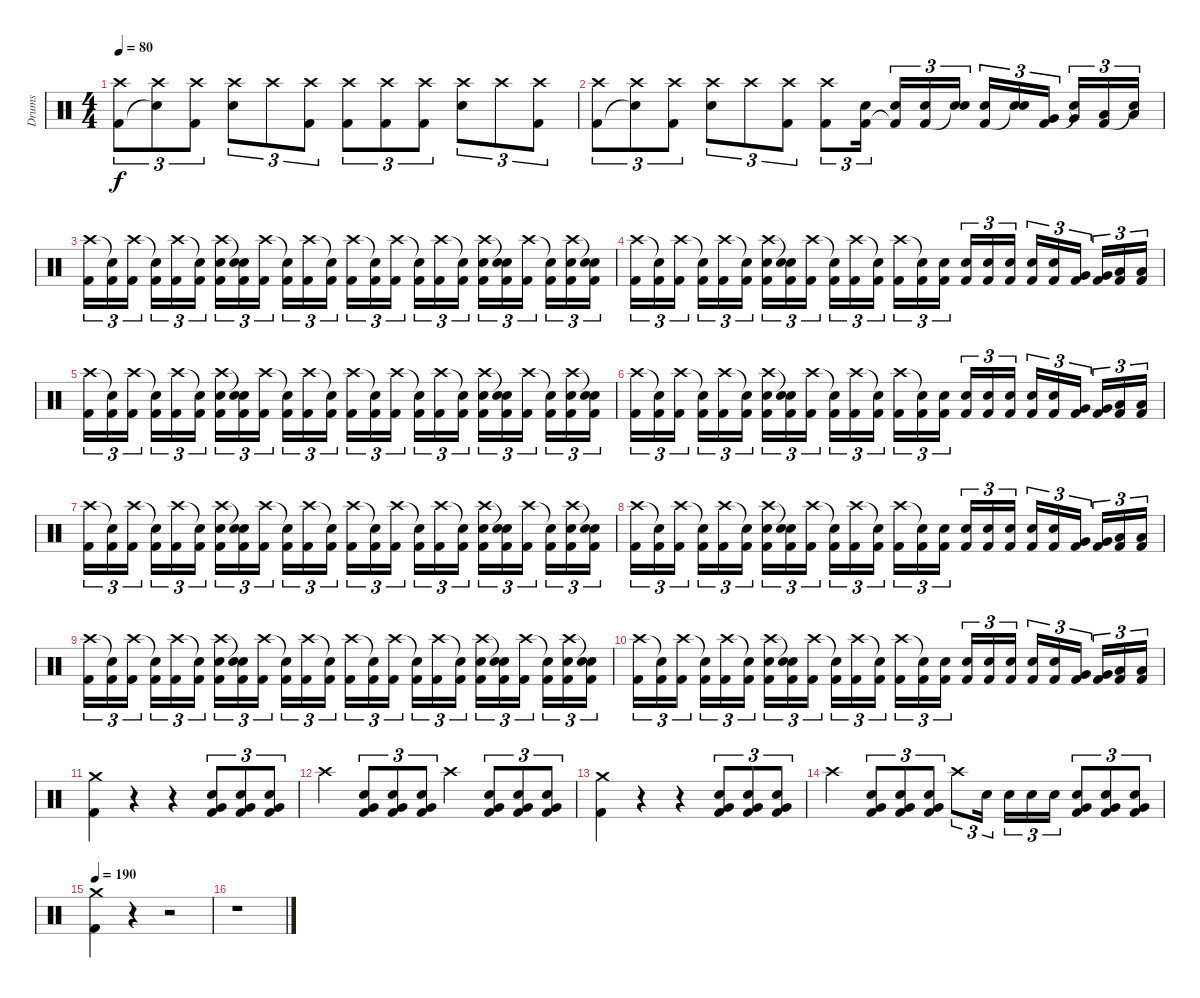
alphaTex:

\track ("Drums" "Drums") {instrument percussion}
\staff {score}
\articulation defaults
\ts (4 4)
\tempo 80
\clef neutral
\ks c
("Crash high (hit)" "Kick (hit) 2").8{tu (3 2) dy f} ("Crash high (hit)" "Snare (hit)"{t}).8{tu (3 2)} ("Crash high (hit)" "Kick (hit) 2").8{tu (3 2)} ("Crash high (hit)" "Snare (hit) 2").8{tu (3 2)} "Crash high (hit)".8{tu (3 2)} ("Crash high (hit)" "Kick (hit) 2").8{tu (3 2)} ("Crash high (hit)" "Kick (hit) 2").8{tu (3 2)} ("Crash high (hit)" "Kick (hit) 2").8{tu (3 2)} ("Crash high (hit)" "Kick (hit) 2").8{tu (3 2)} ("Crash high (hit)" "Snare (hit) 2").8{tu (3 2)} "Crash high (hit)".8{tu (3 2)} ("Crash high (hit)" "Kick (hit) 2").8{tu (3 2)} |
("Crash high (hit)" "Kick (hit) 2").8{tu (3 2)} ("Crash high (hit)" "Snare (hit)"{t}).8{tu (3 2)} ("Crash high (hit)" "Kick (hit) 2").8{tu (3 2)} ("Crash high (hit)" "Snare (hit) 2").8{tu (3 2)} "Crash high (hit)".8{tu (3 2)} ("Crash high (hit)" "Kick (hit) 2").8{tu (3 2)} ("Crash high (hit)" "Kick (hit) 2").8{tu (3 2)} ("Snare (hit) 2" "Kick (hit) 2").16{tu (3 2)} ("Snare (hit) 2" "Kick (hit) 2"{t}).16{tu (3 2)} ("Snare (hit) 2" "Kick (hit) 2").16{tu (3 2)} ("Snare (hit) 2" "Snare (hit)"{t}).16{tu (3 2)} ("Snare (hit) 2" "Kick (hit) 2").16{tu (3 2)} ("Snare (hit) 2" "Snare (hit)"{t}).16{tu (3 2)} ("Very Low Tom (hit)" "Kick (hit) 2").16{tu (3 2)} ("Very Low Tom (hit)" "Snare (hit)"{t}).16{tu (3 2)} ("Low Floor Tom (hit)" "Kick (hit) 2").16{tu (3 2)} ("Low Floor Tom (hit)" "Snare (hit)"{t}).16{tu (3 2)} |
("Crash high (hit)" "Kick (hit) 2").16{tu (3 2)} ("Snare (hit)"{t} "Kick (hit) 2").16{tu (3 2)} ("Crash high (hit)" "Kick (hit) 2").16{tu (3 2)} ("Snare (hit)"{t} "Kick (hit) 2").16{tu (3 2)} ("Crash high (hit)" "Kick (hit) 2").16{tu (3 2)} ("Snare (hit)"{t} "Kick (hit) 2").16{tu (3 2)} ("Crash high (hit)" "Snare (hit) 2" "Kick (hit) 2").16{tu (3 2)} ("Snare (hit)"{t} "Snare (hit)"{t} "Kick (hit) 2").16{tu (3 2)} ("Crash high (hit)" "Kick (hit) 2").16{tu (3 2)} ("Snare (hit)"{t} "Kick (hit) 2").16{tu (3 2)} ("Crash high (hit)" "Kick (hit) 2").16{tu (3 2)} ("Snare (hit)"{t} "Kick (hit) 2").16{tu (3 2)} ("Crash high (hit)" "Kick (hit) 2").16{tu (3 2)} ("Snare (hit)"{t} "Kick (hit) 2").16{tu (3 2)} ("Crash high (hit)" "Kick (hit) 2").16{tu (3 2)} ("Snare (hit)"{t} "Kick (hit) 2").16{tu (3 2)} ("Crash high (hit)" "Kick (hit) 2").16{tu (3 2)} ("Snare (hit)"{t} "Kick (hit) 2").16{tu (3 2)} ("Crash high (hit)" "Snare (hit) 2" "Kick (hit) 2").16{tu (3 2)} ("Snare (hit)"{t} "Snare (hit)"{t} "Kick (hit) 2").16{tu (3 2)} ("Crash high (hit)" "Kick (hit) 2").16{tu (3 2)} ("Snare (hit)"{t} "Kick (hit) 2").16{tu (3 2)} ("Crash high (hit)" "Snare (hit) 2" "Kick (hit) 2").16{tu (3 2)} ("Snare (hit)"{t} "Snare (hit)"{t} "Kick (hit) 2").16{tu (3 2)} |
("Crash high (hit)" "Kick (hit) 2").16{tu (3 2)} ("Snare (hit)"{t} "Kick (hit) 2").16{tu (3 2)} ("Crash high (hit)" "Kick (hit) 2").16{tu (3 2)} ("Snare (hit)"{t} "Kick (hit) 2").16{tu (3 2)} ("Crash high (hit)" "Kick (hit) 2").16{tu (3 2)} ("Snare (hit)"{t} "Kick (hit) 2").16{tu (3 2)} ("Crash high (hit)" "Snare (hit) 2" "Kick (hit) 2").16{tu (3 2)} ("Snare (hit)"{t} "Snare (hit)"{t} "Kick (hit) 2").16{tu (3 2)} ("Crash high (hit)" "Kick (hit) 2").16{tu (3 2)} ("Snare (hit)"{t} "Kick (hit) 2").16{tu (3 2)} ("Crash high (hit)" "Kick (hit) 2").16{tu (3 2)} ("Snare (hit)"{t} "Kick (hit) 2").16{tu (3 2)} ("Crash high (hit)" "Kick (hit) 2").16{tu (3 2)} ("Snare (hit)"{t} "Kick (hit) 2").16{tu (3 2)} ("Snare (hit) 2" "Kick (hit) 2").16{tu (3 2)} ("Snare (hit) 2" "Kick (hit) 2").16{tu (3 2)} ("Snare (hit) 2" "Kick (hit) 2").16{tu (3 2)} ("Snare (hit) 2" "Kick (hit) 2").16{tu (3 2)} ("Snare (hit) 2" "Kick (hit) 2").16{tu (3 2)} ("Snare (hit) 2" "Kick (hit) 2").16{tu (3 2)} ("Very Low Tom (hit)" "Kick (hit) 2").16{tu (3 2)} ("Very Low Tom (hit)" "Kick (hit) 2").16{tu (3 2)} ("Low Floor Tom (hit)" "Kick (hit) 2").16{tu (3 2)} ("Low Floor Tom (hit)" "Kick (hit) 2").16{tu (3 2)} |
("Crash high (hit)" "Kick (hit) 2").16{tu (3 2)} ("Snare (hit)"{t} "Kick (hit) 2").16{tu (3 2)} ("Crash high (hit)" "Kick (hit) 2").16{tu (3 2)} ("Snare (hit)"{t} "Kick (hit) 2").16{tu (3 2)} ("Crash high (hit)" "Kick (hit) 2").16{tu (3 2)} ("Snare (hit)"{t} "Kick (hit) 2").16{tu (3 2)} ("Crash high (hit)" "Snare (hit) 2" "Kick (hit) 2").16{tu (3 2)} ("Snare (hit)"{t} "Snare (hit)"{t} "Kick (hit) 2").16{tu (3 2)} ("Crash high (hit)" "Kick (hit) 2").16{tu (3 2)} ("Snare (hit)"{t} "Kick (hit) 2").16{tu (3 2)} ("Crash high (hit)" "Kick (hit) 2").16{tu (3 2)} ("Snare (hit)"{t} "Kick (hit) 2").16{tu (3 2)} ("Crash high (hit)" "Kick (hit) 2").16{tu (3 2)} ("Snare (hit)"{t} "Kick (hit) 2").16{tu (3 2)} ("Crash high (hit)" "Kick (hit) 2").16{tu (3 2)} ("Snare (hit)"{t} "Kick (hit) 2").16{tu (3 2)} ("Crash high (hit)" "Kick (hit) 2").16{tu (3 2)} ("Snare (hit)"{t} "Kick (hit) 2").16{tu (3 2)} ("Crash high (hit)" "Snare (hit) 2" "Kick (hit) 2").16{tu (3 2)} ("Snare (hit)"{t} "Snare (hit)"{t} "Kick (hit) 2").16{tu (3 2)} ("Crash high (hit)" "Kick (hit) 2").16{tu (3 2)} ("Snare (hit)"{t} "Kick (hit) 2").16{tu (3 2)} ("Crash high (hit)" "Snare (hit) 2" "Kick (hit) 2").16{tu (3 2)} ("Snare (hit)"{t} "Snare (hit)"{t} "Kick (hit) 2").16{tu (3 2)} |
("Crash high (hit)" "Kick (hit) 2").16{tu (3 2)} ("Snare (hit)"{t} "Kick (hit) 2").16{tu (3 2)} ("Crash high (hit)" "Kick (hit) 2").16{tu (3 2)} ("Snare (hit)"{t} "Kick (hit) 2").16{tu (3 2)} ("Crash high (hit)" "Kick (hit) 2").16{tu (3 2)} ("Snare (hit)"{t} "Kick (hit) 2").16{tu (3 2)} ("Crash high (hit)" "Snare (hit) 2" "Kick (hit) 2").16{tu (3 2)} ("Snare (hit)"{t} "Snare (hit)"{t} "Kick (hit) 2").16{tu (3 2)} ("Crash high (hit)" "Kick (hit) 2").16{tu (3 2)} ("Snare (hit)"{t} "Kick (hit) 2").16{tu (3 2)} ("Crash high (hit)" "Kick (hit) 2").16{tu (3 2)} ("Snare (hit)"{t} "Kick (hit) 2").16{tu (3 2)} ("Crash high (hit)" "Kick (hit) 2").16{tu (3 2)} ("Snare (hit)"{t} "Kick (hit) 2").16{tu (3 2)} ("Snare (hit) 2" "Kick (hit) 2").16{tu (3 2)} ("Snare (hit) 2" "Kick (hit) 2").16{tu (3 2)} ("Snare (hit) 2" "Kick (hit) 2").16{tu (3 2)} ("Snare (hit) 2" "Kick (hit) 2").16{tu (3 2)} ("Snare (hit) 2" "Kick (hit) 2").16{tu (3 2)} ("Snare (hit) 2" "Kick (hit) 2").16{tu (3 2)} ("Very Low Tom (hit)" "Kick (hit) 2").16{tu (3 2)} ("Very Low Tom (hit)" "Kick (hit) 2").16{tu (3 2)} ("Low Floor Tom (hit)" "Kick (hit) 2").16{tu (3 2)} ("Low Floor Tom (hit)" "Kick (hit) 2").16{tu (3 2)} |
("Crash high (hit)" "Kick (hit) 2").16{tu (3 2)} ("Snare (hit)"{t} "Kick (hit) 2").16{tu (3 2)} ("Crash high (hit)" "Kick (hit) 2").16{tu (3 2)} ("Snare (hit)"{t} "Kick (hit) 2").16{tu (3 2)} ("Crash high (hit)" "Kick (hit) 2").16{tu (3 2)} ("Snare (hit)"{t} "Kick (hit) 2").16{tu (3 2)} ("Crash high (hit)" "Snare (hit) 2" "Kick (hit) 2").16{tu (3 2)} ("Snare (hit)"{t} "Snare (hit)"{t} "Kick (hit) 2").16{tu (3 2)} ("Crash high (hit)" "Kick (hit) 2").16{tu (3 2)} ("Snare (hit)"{t} "Kick (hit) 2").16{tu (3 2)} ("Crash high (hit)" "Kick (hit) 2").16{tu (3 2)} ("Snare (hit)"{t} "Kick (hit) 2").16{tu (3 2)} ("Crash high (hit)" "Kick (hit) 2").16{tu (3 2)} ("Snare (hit)"{t} "Kick (hit) 2").16{tu (3 2)} ("Crash high (hit)" "Kick (hit) 2").16{tu (3 2)} ("Snare (hit)"{t} "Kick (hit) 2").16{tu (3 2)} ("Crash high (hit)" "Kick (hit) 2").16{tu (3 2)} ("Snare (hit)"{t} "Kick (hit) 2").16{tu (3 2)} ("Crash high (hit)" "Snare (hit) 2" "Kick (hit) 2").16{tu (3 2)} ("Snare (hit)"{t} "Snare (hit)"{t} "Kick (hit) 2").16{tu (3 2)} ("Crash high (hit)" "Kick (hit) 2").16{tu (3 2)} ("Snare (hit)"{t} "Kick (hit) 2").16{tu (3 2)} ("Crash high (hit)" "Snare (hit) 2" "Kick (hit) 2").16{tu (3 2)} ("Snare (hit)"{t} "Snare (hit)"{t} "Kick (hit) 2").16{tu (3 2)} |
("Crash high (hit)" "Kick (hit) 2").16{tu (3 2)} ("Snare (hit)"{t} "Kick (hit) 2").16{tu (3 2)} ("Crash high (hit)" "Kick (hit) 2").16{tu (3 2)} ("Snare (hit)"{t} "Kick (hit) 2").16{tu (3 2)} ("Crash high (hit)" "Kick (hit) 2").16{tu (3 2)} ("Snare (hit)"{t} "Kick (hit) 2").16{tu (3 2)} ("Crash high (hit)" "Snare (hit) 2" "Kick (hit) 2").16{tu (3 2)} ("Snare (hit)"{t} "Snare (hit)"{t} "Kick (hit) 2").16{tu (3 2)} ("Crash high (hit)" "Kick (hit) 2").16{tu (3 2)} ("Snare (hit)"{t} "Kick (hit) 2").16{tu (3 2)} ("Crash high (hit)" "Kick (hit) 2").16{tu (3 2)} ("Snare (hit)"{t} "Kick (hit) 2").16{tu (3 2)} ("Crash high (hit)" "Kick (hit) 2").16{tu (3 2)} ("Snare (hit)"{t} "Kick (hit) 2").16{tu (3 2)} ("Snare (hit) 2" "Kick (hit) 2").16{tu (3 2)} ("Snare (hit) 2" "Kick (hit) 2").16{tu (3 2)} ("Snare (hit) 2" "Kick (hit) 2").16{tu (3 2)} ("Snare (hit) 2" "Kick (hit) 2").16{tu (3 2)} ("Snare (hit) 2" "Kick (hit) 2").16{tu (3 2)} ("Snare (hit) 2" "Kick (hit) 2").16{tu (3 2)} ("Very Low Tom (hit)" "Kick (hit) 2").16{tu (3 2)} ("Very Low Tom (hit)" "Kick (hit) 2").16{tu (3 2)} ("Low Floor Tom (hit)" "Kick (hit) 2").16{tu (3 2)} ("Low Floor Tom (hit)" "Kick (hit) 2").16{tu (3 2)} |
("Crash high (hit)" "Kick (hit) 2").16{tu (3 2)} ("Snare (hit)"{t} "Kick (hit) 2").16{tu (3 2)} ("Crash high (hit)" "Kick (hit) 2").16{tu (3 2)} ("Snare (hit)"{t} "Kick (hit) 2").16{tu (3 2)} ("Crash high (hit)" "Kick (hit) 2").16{tu (3 2)} ("Snare (hit)"{t} "Kick (hit) 2").16{tu (3 2)} ("Crash high (hit)" "Snare (hit) 2" "Kick (hit) 2").16{tu (3 2)} ("Snare (hit)"{t} "Snare (hit)"{t} "Kick (hit) 2").16{tu (3 2)} ("Crash high (hit)" "Kick (hit) 2").16{tu (3 2)} ("Snare (hit)"{t} "Kick (hit) 2").16{tu (3 2)} ("Crash high (hit)" "Kick (hit) 2").16{tu (3 2)} ("Snare (hit)"{t} "Kick (hit) 2").16{tu (3 2)} ("Crash high (hit)" "Kick (hit) 2").16{tu (3 2)} ("Snare (hit)"{t} "Kick (hit) 2").16{tu (3 2)} ("Crash high (hit)" "Kick (hit) 2").16{tu (3 2)} ("Snare (hit)"{t} "Kick (hit) 2").16{tu (3 2)} ("Crash high (hit)" "Kick (hit) 2").16{tu (3 2)} ("Snare (hit)"{t} "Kick (hit) 2").16{tu (3 2)} ("Crash high (hit)" "Snare (hit) 2" "Kick (hit) 2").16{tu (3 2)} ("Snare (hit)"{t} "Snare (hit)"{t} "Kick (hit) 2").16{tu (3 2)} ("Crash high (hit)" "Kick (hit) 2").16{tu (3 2)} ("Snare (hit)"{t} "Kick (hit) 2").16{tu (3 2)} ("Crash high (hit)" "Snare (hit) 2" "Kick (hit) 2").16{tu (3 2)} ("Snare (hit)"{t} "Snare (hit)"{t} "Kick (hit) 2").16{tu (3 2)} |
("Crash high (hit)" "Kick (hit) 2").16{tu (3 2)} ("Snare (hit)"{t} "Kick (hit) 2").16{tu (3 2)} ("Crash high (hit)" "Kick (hit) 2").16{tu (3 2)} ("Snare (hit)"{t} "Kick (hit) 2").16{tu (3 2)} ("Crash high (hit)" "Kick (hit) 2").16{tu (3 2)} ("Snare (hit)"{t} "Kick (hit) 2").16{tu (3 2)} ("Crash high (hit)" "Snare (hit) 2" "Kick (hit) 2").16{tu (3 2)} ("Snare (hit)"{t} "Snare (hit)"{t} "Kick (hit) 2").16{tu (3 2)} ("Crash high (hit)" "Kick (hit) 2").16{tu (3 2)} ("Snare (hit)"{t} "Kick (hit) 2").16{tu (3 2)} ("Crash high (hit)" "Kick (hit) 2").16{tu (3 2)} ("Snare (hit)"{t} "Kick (hit) 2").16{tu (3 2)} ("Crash high (hit)" "Kick (hit) 2").16{tu (3 2)} ("Snare (hit)"{t} "Kick (hit) 2").16{tu (3 2)} ("Snare (hit) 2" "Kick (hit) 2").16{tu (3 2)} ("Snare (hit) 2" "Kick (hit) 2").16{tu (3 2)} ("Snare (hit) 2" "Kick (hit) 2").16{tu (3 2)} ("Snare (hit) 2" "Kick (hit) 2").16{tu (3 2)} ("Snare (hit) 2" "Kick (hit) 2").16{tu (3 2)} ("Snare (hit) 2" "Kick (hit) 2").16{tu (3 2)} ("Very Low Tom (hit)" "Kick (hit) 2").16{tu (3 2)} ("Very Low Tom (hit)" "Kick (hit) 2").16{tu (3 2)} ("Low Floor Tom (hit)" "Kick (hit) 2").16{tu (3 2)} ("Low Floor Tom (hit)" "Kick (hit) 2").16{tu (3 2)} |
("Crash medium (hit)" "Kick (hit) 2").4 r.4 r.4 ("Snare (hit) 2" "Very Low Tom (hit)" "Kick (hit) 2").8{tu (3 2)} ("Snare (hit) 2" "Very Low Tom (hit)" "Kick (hit) 2").8{tu (3 2)} ("Snare (hit) 2" "Very Low Tom (hit)" "Kick (hit) 2").8{tu (3 2)} |
"Crash high (hit)".4 ("Snare (hit) 2" "Very Low Tom (hit)" "Kick (hit) 2").8{tu (3 2)} ("Snare (hit) 2" "Very Low Tom (hit)" "Kick (hit) 2").8{tu (3 2)} ("Snare (hit) 2" "Very Low Tom (hit)" "Kick (hit) 2").8{tu (3 2)} "Crash high (hit)".4 ("Snare (hit) 2" "Very Low Tom (hit)" "Kick (hit) 2").8{tu (3 2)} ("Snare (hit) 2" "Very Low Tom (hit)" "Kick (hit) 2").8{tu (3 2)} ("Snare (hit) 2" "Very Low Tom (hit)" "Kick (hit) 2").8{tu (3 2)} |
("Crash medium (hit)" "Kick (hit) 2").4 r.4 r.4 ("Snare (hit) 2" "Very Low Tom (hit)" "Kick (hit) 2").8{tu (3 2)} ("Snare (hit) 2" "Very Low Tom (hit)" "Kick (hit) 2").8{tu (3 2)} ("Snare (hit) 2" "Very Low Tom (hit)" "Kick (hit) 2").8{tu (3 2)} |
"Crash high (hit)".4 ("Snare (hit) 2" "Very Low Tom (hit)" "Kick (hit) 2").8{tu (3 2)} ("Snare (hit) 2" "Very Low Tom (hit)" "Kick (hit) 2").8{tu (3 2)} ("Snare (hit) 2" "Very Low Tom (hit)" "Kick (hit) 2").8{tu (3 2)} "Crash high (hit)".8{tu (3 2)} "Snare (hit) 2".16{tu (3 2)} "Snare (hit) 2".16{tu (3 2)} "Snare (hit) 2".16{tu (3 2)} "Snare (hit) 2".16{tu (3 2)} ("Snare (hit) 2" "Very Low Tom (hit)" "Kick (hit) 2").8{tu (3 2)} ("Snare (hit) 2" "Very Low Tom (hit)" "Kick (hit) 2").8{tu (3 2)} ("Snare (hit) 2" "Very Low Tom (hit)" "Kick (hit) 2").8{tu (3 2)} |
\tempo 190
("Crash medium (hit)" "Kick (hit) 2").4 r.4 r.2 |
r.1
